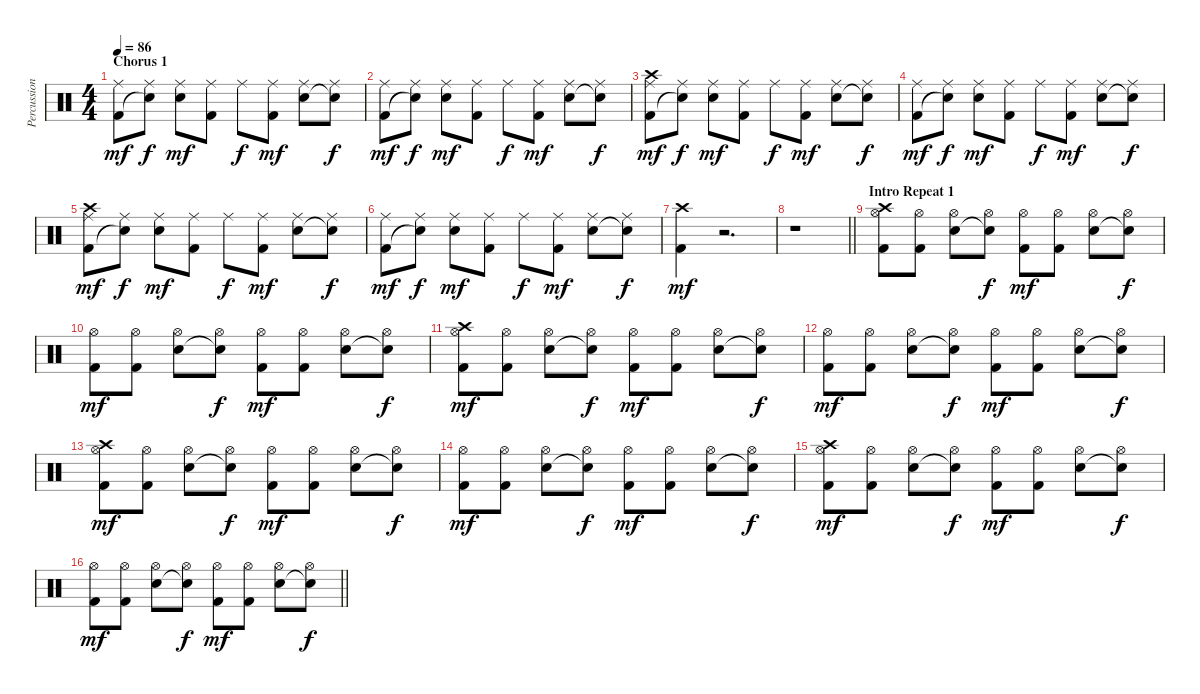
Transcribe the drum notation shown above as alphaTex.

\track ("Percussion" "Percussion") {instrument percussion}
\staff {score}
\articulation defaults
\ts (4 4)
\section ("" "Chorus 1")
\tempo 86
\clef neutral
\ks c
("Kick (hit) 2" "Ride (middle)").8{dy mf} ("Snare (hit)"{t} "Ride (middle)").8{dy f} ("Snare (hit) 2" "Ride (middle)").8{dy mf} ("Kick (hit) 2" "Ride (middle)").8 "Ride (middle)".8{dy f} ("Kick (hit) 2" "Ride (middle)").8{dy mf} ("Snare (hit) 2" "Ride (middle)").8 ("Snare (hit)"{t} "Ride (middle)").8{dy f} |
("Kick (hit) 2" "Ride (middle)").8{dy mf} ("Snare (hit)"{t} "Ride (middle)").8{dy f} ("Snare (hit) 2" "Ride (middle)").8{dy mf} ("Kick (hit) 2" "Ride (middle)").8 "Ride (middle)".8{dy f} ("Kick (hit) 2" "Ride (middle)").8{dy mf} ("Snare (hit) 2" "Ride (middle)").8 ("Snare (hit)"{t} "Ride (middle)").8{dy f} |
("Kick (hit) 2" "Ride (middle)" "Crash high (hit)").8{dy mf} ("Snare (hit)"{t} "Ride (middle)").8{dy f} ("Snare (hit) 2" "Ride (middle)").8{dy mf} ("Kick (hit) 2" "Ride (middle)").8 "Ride (middle)".8{dy f} ("Kick (hit) 2" "Ride (middle)").8{dy mf} ("Snare (hit) 2" "Ride (middle)").8 ("Snare (hit)"{t} "Ride (middle)").8{dy f} |
("Kick (hit) 2" "Ride (middle)").8{dy mf} ("Snare (hit)"{t} "Ride (middle)").8{dy f} ("Snare (hit) 2" "Ride (middle)").8{dy mf} ("Kick (hit) 2" "Ride (middle)").8 "Ride (middle)".8{dy f} ("Kick (hit) 2" "Ride (middle)").8{dy mf} ("Snare (hit) 2" "Ride (middle)").8 ("Snare (hit)"{t} "Ride (middle)").8{dy f} |
("Kick (hit) 2" "Ride (middle)" "Crash high (hit)").8{dy mf} ("Snare (hit)"{t} "Ride (middle)").8{dy f} ("Snare (hit) 2" "Ride (middle)").8{dy mf} ("Kick (hit) 2" "Ride (middle)").8 "Ride (middle)".8{dy f} ("Kick (hit) 2" "Ride (middle)").8{dy mf} ("Snare (hit) 2" "Ride (middle)").8 ("Snare (hit)"{t} "Ride (middle)").8{dy f} |
("Kick (hit) 2" "Ride (middle)").8{dy mf} ("Snare (hit)"{t} "Ride (middle)").8{dy f} ("Snare (hit) 2" "Ride (middle)").8{dy mf} ("Kick (hit) 2" "Ride (middle)").8 "Ride (middle)".8{dy f} ("Kick (hit) 2" "Ride (middle)").8{dy mf} ("Snare (hit) 2" "Ride (middle)").8 ("Snare (hit)"{t} "Ride (middle)").8{dy f} |
("Kick (hit) 2" "Crash high (hit)").4{dy mf} r.2{d} |
\barLineRight lightlight
r.1 |
\section ("" "Intro Repeat 1")
("Kick (hit) 2" "Hi-Hat (open)" "Crash high (hit)").8 ("Kick (hit) 2" "Hi-Hat (open)").8 ("Snare (hit) 2" "Hi-Hat (open)").8 ("Snare (hit)"{t} "Hi-Hat (open)").8{dy f} ("Kick (hit) 2" "Hi-Hat (open)").8{dy mf} ("Kick (hit) 2" "Hi-Hat (open)").8 ("Snare (hit) 2" "Hi-Hat (open)").8 ("Snare (hit)"{t} "Hi-Hat (open)").8{dy f} |
("Kick (hit) 2" "Hi-Hat (open)").8{dy mf} ("Kick (hit) 2" "Hi-Hat (open)").8 ("Snare (hit) 2" "Hi-Hat (open)").8 ("Snare (hit)"{t} "Hi-Hat (open)").8{dy f} ("Kick (hit) 2" "Hi-Hat (open)").8{dy mf} ("Kick (hit) 2" "Hi-Hat (open)").8 ("Snare (hit) 2" "Hi-Hat (open)").8 ("Snare (hit)"{t} "Hi-Hat (open)").8{dy f} |
("Kick (hit) 2" "Hi-Hat (open)" "Crash high (hit)").8{dy mf} ("Kick (hit) 2" "Hi-Hat (open)").8 ("Snare (hit) 2" "Hi-Hat (open)").8 ("Snare (hit)"{t} "Hi-Hat (open)").8{dy f} ("Kick (hit) 2" "Hi-Hat (open)").8{dy mf} ("Kick (hit) 2" "Hi-Hat (open)").8 ("Snare (hit) 2" "Hi-Hat (open)").8 ("Snare (hit)"{t} "Hi-Hat (open)").8{dy f} |
("Kick (hit) 2" "Hi-Hat (open)").8{dy mf} ("Kick (hit) 2" "Hi-Hat (open)").8 ("Snare (hit) 2" "Hi-Hat (open)").8 ("Snare (hit)"{t} "Hi-Hat (open)").8{dy f} ("Kick (hit) 2" "Hi-Hat (open)").8{dy mf} ("Kick (hit) 2" "Hi-Hat (open)").8 ("Snare (hit) 2" "Hi-Hat (open)").8 ("Snare (hit)"{t} "Hi-Hat (open)").8{dy f} |
("Kick (hit) 2" "Hi-Hat (open)" "Crash high (hit)").8{dy mf} ("Kick (hit) 2" "Hi-Hat (open)").8 ("Snare (hit) 2" "Hi-Hat (open)").8 ("Snare (hit)"{t} "Hi-Hat (open)").8{dy f} ("Kick (hit) 2" "Hi-Hat (open)").8{dy mf} ("Kick (hit) 2" "Hi-Hat (open)").8 ("Snare (hit) 2" "Hi-Hat (open)").8 ("Snare (hit)"{t} "Hi-Hat (open)").8{dy f} |
("Kick (hit) 2" "Hi-Hat (open)").8{dy mf} ("Kick (hit) 2" "Hi-Hat (open)").8 ("Snare (hit) 2" "Hi-Hat (open)").8 ("Snare (hit)"{t} "Hi-Hat (open)").8{dy f} ("Kick (hit) 2" "Hi-Hat (open)").8{dy mf} ("Kick (hit) 2" "Hi-Hat (open)").8 ("Snare (hit) 2" "Hi-Hat (open)").8 ("Snare (hit)"{t} "Hi-Hat (open)").8{dy f} |
("Kick (hit) 2" "Hi-Hat (open)" "Crash high (hit)").8{dy mf} ("Kick (hit) 2" "Hi-Hat (open)").8 ("Snare (hit) 2" "Hi-Hat (open)").8 ("Snare (hit)"{t} "Hi-Hat (open)").8{dy f} ("Kick (hit) 2" "Hi-Hat (open)").8{dy mf} ("Kick (hit) 2" "Hi-Hat (open)").8 ("Snare (hit) 2" "Hi-Hat (open)").8 ("Snare (hit)"{t} "Hi-Hat (open)").8{dy f} |
\barLineRight lightlight
("Kick (hit) 2" "Hi-Hat (open)").8{dy mf} ("Kick (hit) 2" "Hi-Hat (open)").8 ("Snare (hit) 2" "Hi-Hat (open)").8 ("Snare (hit)"{t} "Hi-Hat (open)").8{dy f} ("Kick (hit) 2" "Hi-Hat (open)").8{dy mf} ("Kick (hit) 2" "Hi-Hat (open)").8 ("Snare (hit) 2" "Hi-Hat (open)").8 ("Snare (hit)"{t} "Hi-Hat (open)").8{dy f}
